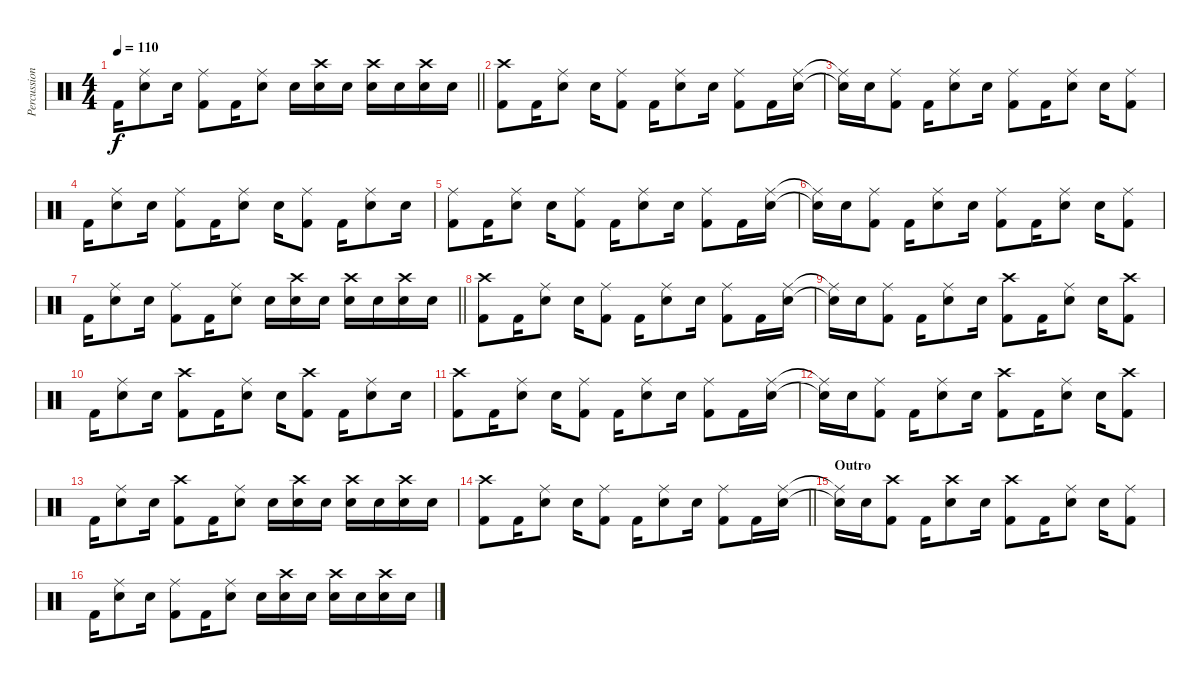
\track ("Percussion" "Percussion") {instrument percussion}
\staff {score}
\articulation defaults
\ts (4 4)
\tempo 110
\clef neutral
\barLineRight lightlight
\ks c "Kick (hit) 2".16{dy f}
("Electric Snare (hit)" "Ride (middle)").8 "Electric Snare (hit)".16 ("Kick (hit) 2" "Ride (middle)").8 "Kick (hit) 2".16 ("Electric Snare (hit)" "Ride (middle)").8 "Electric Snare (hit)".16 ("Electric Snare (hit)" "Crash high (hit)").16 "Electric Snare (hit)".16 ("Electric Snare (hit)" "Crash high (hit)").16 "Electric Snare (hit)".16 ("Electric Snare (hit)" "Crash high (hit)").16 "Electric Snare (hit)".16 |
("Kick (hit) 2" "Crash high (hit)").8 "Kick (hit) 2".16 ("Electric Snare (hit)" "Ride (middle)").8 "Electric Snare (hit)".16 ("Kick (hit) 2" "Ride (middle)").8 "Kick (hit) 2".16 ("Electric Snare (hit)" "Ride (middle)").8 "Electric Snare (hit)".16 ("Kick (hit) 2" "Ride (middle)").8 "Kick (hit) 2".16 ("Electric Snare (hit)" "Ride (middle)").16 |
("Electric Snare (hit)"{t} "Ride (middle)"{t}).16 "Electric Snare (hit)".16 ("Kick (hit) 2" "Ride (middle)").8 "Kick (hit) 2".16 ("Electric Snare (hit)" "Ride (middle)").8 "Electric Snare (hit)".16 ("Kick (hit) 2" "Ride (middle)").8 "Kick (hit) 2".16 ("Electric Snare (hit)" "Ride (middle)").8 "Electric Snare (hit)".16 ("Kick (hit) 2" "Ride (middle)").8 |
"Kick (hit) 2".16 ("Electric Snare (hit)" "Ride (middle)").8 "Electric Snare (hit)".16 ("Kick (hit) 2" "Ride (middle)").8 "Kick (hit) 2".16 ("Electric Snare (hit)" "Ride (middle)").8 "Electric Snare (hit)".16 ("Kick (hit) 2" "Ride (middle)").8 "Kick (hit) 2".16 ("Electric Snare (hit)" "Ride (middle)").8 "Electric Snare (hit)".16 |
("Kick (hit) 2" "Ride (middle)").8 "Kick (hit) 2".16 ("Electric Snare (hit)" "Ride (middle)").8 "Electric Snare (hit)".16 ("Kick (hit) 2" "Ride (middle)").8 "Kick (hit) 2".16 ("Electric Snare (hit)" "Ride (middle)").8 "Electric Snare (hit)".16 ("Kick (hit) 2" "Ride (middle)").8 "Kick (hit) 2".16 ("Electric Snare (hit)" "Ride (middle)").16 |
("Electric Snare (hit)"{t} "Ride (middle)"{t}).16 "Electric Snare (hit)".16 ("Kick (hit) 2" "Ride (middle)").8 "Kick (hit) 2".16 ("Electric Snare (hit)" "Ride (middle)").8 "Electric Snare (hit)".16 ("Kick (hit) 2" "Ride (middle)").8 "Kick (hit) 2".16 ("Electric Snare (hit)" "Ride (middle)").8 "Electric Snare (hit)".16 ("Kick (hit) 2" "Ride (middle)").8 |
\barLineRight lightlight "Kick (hit) 2".16
("Electric Snare (hit)" "Ride (middle)").8 "Electric Snare (hit)".16 ("Kick (hit) 2" "Ride (middle)").8 "Kick (hit) 2".16 ("Electric Snare (hit)" "Ride (middle)").8 "Electric Snare (hit)".16 ("Electric Snare (hit)" "Crash high (hit)").16 "Electric Snare (hit)".16 ("Electric Snare (hit)" "Crash high (hit)").16 "Electric Snare (hit)".16 ("Electric Snare (hit)" "Crash high (hit)").16 "Electric Snare (hit)".16 |
("Kick (hit) 2" "Crash high (hit)").8 "Kick (hit) 2".16 ("Electric Snare (hit)" "Ride (middle)").8 "Electric Snare (hit)".16 ("Kick (hit) 2" "Ride (middle)").8 "Kick (hit) 2".16 ("Electric Snare (hit)" "Ride (middle)").8 "Electric Snare (hit)".16 ("Kick (hit) 2" "Ride (middle)").8 "Kick (hit) 2".16 ("Electric Snare (hit)" "Ride (middle)").16 |
("Electric Snare (hit)"{t} "Ride (middle)"{t}).16 "Electric Snare (hit)".16 ("Kick (hit) 2" "Ride (middle)").8 "Kick (hit) 2".16 ("Electric Snare (hit)" "Ride (middle)").8 "Electric Snare (hit)".16 ("Kick (hit) 2" "Crash high (hit)").8 "Kick (hit) 2".16 ("Electric Snare (hit)" "Ride (middle)").8 "Electric Snare (hit)".16 ("Kick (hit) 2" "Crash high (hit)").8 |
"Kick (hit) 2".16 ("Electric Snare (hit)" "Ride (middle)").8 "Electric Snare (hit)".16 ("Kick (hit) 2" "Crash high (hit)").8 "Kick (hit) 2".16 ("Electric Snare (hit)" "Ride (middle)").8 "Electric Snare (hit)".16 ("Kick (hit) 2" "Crash high (hit)").8 "Kick (hit) 2".16 ("Electric Snare (hit)" "Ride (middle)").8 "Electric Snare (hit)".16 |
("Kick (hit) 2" "Crash high (hit)").8 "Kick (hit) 2".16 ("Electric Snare (hit)" "Ride (middle)").8 "Electric Snare (hit)".16 ("Kick (hit) 2" "Ride (middle)").8 "Kick (hit) 2".16 ("Electric Snare (hit)" "Ride (middle)").8 "Electric Snare (hit)".16 ("Kick (hit) 2" "Ride (middle)").8 "Kick (hit) 2".16 ("Electric Snare (hit)" "Ride (middle)").16 |
("Electric Snare (hit)"{t} "Ride (middle)"{t}).16 "Electric Snare (hit)".16 ("Kick (hit) 2" "Ride (middle)").8 "Kick (hit) 2".16 ("Electric Snare (hit)" "Ride (middle)").8 "Electric Snare (hit)".16 ("Kick (hit) 2" "Crash high (hit)").8 "Kick (hit) 2".16 ("Electric Snare (hit)" "Ride (middle)").8 "Electric Snare (hit)".16 ("Kick (hit) 2" "Crash high (hit)").8 |
"Kick (hit) 2".16 ("Electric Snare (hit)" "Ride (middle)").8 "Electric Snare (hit)".16 ("Kick (hit) 2" "Crash high (hit)").8 "Kick (hit) 2".16 ("Electric Snare (hit)" "Ride (middle)").8 "Electric Snare (hit)".16 ("Electric Snare (hit)" "Crash high (hit)").16 "Electric Snare (hit)".16 ("Electric Snare (hit)" "Crash high (hit)").16 "Electric Snare (hit)".16 ("Electric Snare (hit)" "Crash high (hit)").16 "Electric Snare (hit)".16 |
\barLineRight lightlight
("Kick (hit) 2" "Crash high (hit)").8 "Kick (hit) 2".16 ("Electric Snare (hit)" "Ride (middle)").8 "Electric Snare (hit)".16 ("Kick (hit) 2" "Ride (middle)").8 "Kick (hit) 2".16 ("Electric Snare (hit)" "Ride (middle)").8 "Electric Snare (hit)".16 ("Kick (hit) 2" "Ride (middle)").8 "Kick (hit) 2".16 ("Electric Snare (hit)" "Ride (middle)").16 |
\section ("" "Outro")
("Electric Snare (hit)"{t} "Ride (middle)"{t}).16 "Electric Snare (hit)".16 ("Kick (hit) 2" "Crash high (hit)").8 "Kick (hit) 2".16 ("Electric Snare (hit)" "Crash high (hit)").8 "Electric Snare (hit)".16 ("Kick (hit) 2" "Crash high (hit)").8 "Kick (hit) 2".16 ("Electric Snare (hit)" "Ride (middle)").8 "Electric Snare (hit)".16 ("Kick (hit) 2" "Ride (middle)").8 |
"Kick (hit) 2".16 ("Electric Snare (hit)" "Ride (middle)").8 "Electric Snare (hit)".16 ("Kick (hit) 2" "Ride (middle)").8 "Kick (hit) 2".16 ("Electric Snare (hit)" "Ride (middle)").8 "Electric Snare (hit)".16 ("Electric Snare (hit)" "Crash high (hit)").16 "Electric Snare (hit)".16 ("Electric Snare (hit)" "Crash high (hit)").16 "Electric Snare (hit)".16 ("Electric Snare (hit)" "Crash high (hit)").16 "Electric Snare (hit)".16
